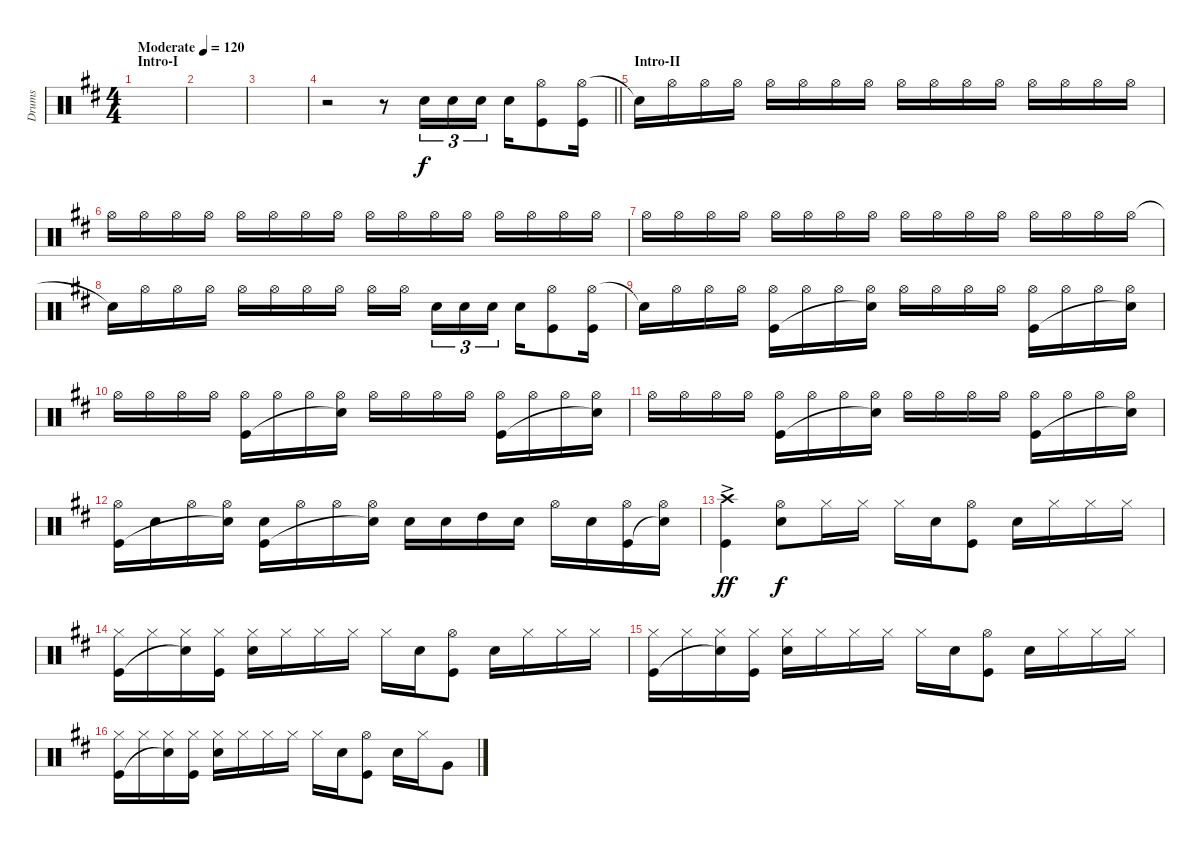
\track ("Drums" "Drums") {instrument percussion}
\staff {score}
\articulation defaults
\ts (4 4)
\section ("" "Intro-I")
\tempo (120 "Moderate")
\clef neutral
\ks d
|
|
|
\barLineRight lightlight
r.2 r.8 "Snare (hit) 2".16{tu (3 2)} "Snare (hit) 2".16{tu (3 2)} "Snare (hit) 2".16{tu (3 2)} "Snare (hit) 2".16 ("Hi-Hat (open)" "Kick (hit)").8 ("Hi-Hat (open)" "Kick (hit)").16 |
\section ("" "Intro-II")
"Snare (hit)"{t}.16 "Hi-Hat (open)".16 "Hi-Hat (open)".16 "Hi-Hat (open)".16 "Hi-Hat (open)".16 "Hi-Hat (open)".16 "Hi-Hat (open)".16 "Hi-Hat (open)".16 "Hi-Hat (open)".16 "Hi-Hat (open)".16 "Hi-Hat (open)".16 "Hi-Hat (open)".16 "Hi-Hat (open)".16 "Hi-Hat (open)".16 "Hi-Hat (open)".16 "Hi-Hat (open)".16 |
"Hi-Hat (open)".16 "Hi-Hat (open)".16 "Hi-Hat (open)".16 "Hi-Hat (open)".16 "Hi-Hat (open)".16 "Hi-Hat (open)".16 "Hi-Hat (open)".16 "Hi-Hat (open)".16 "Hi-Hat (open)".16 "Hi-Hat (open)".16 "Hi-Hat (open)".16 "Hi-Hat (open)".16 "Hi-Hat (open)".16 "Hi-Hat (open)".16 "Hi-Hat (open)".16 "Hi-Hat (open)".16 |
"Hi-Hat (open)".16 "Hi-Hat (open)".16 "Hi-Hat (open)".16 "Hi-Hat (open)".16 "Hi-Hat (open)".16 "Hi-Hat (open)".16 "Hi-Hat (open)".16 "Hi-Hat (open)".16 "Hi-Hat (open)".16 "Hi-Hat (open)".16 "Hi-Hat (open)".16 "Hi-Hat (open)".16 "Hi-Hat (open)".16 "Hi-Hat (open)".16 "Hi-Hat (open)".16 "Hi-Hat (open)".16 |
"Snare (hit)"{t}.16 "Hi-Hat (open)".16 "Hi-Hat (open)".16 "Hi-Hat (open)".16 "Hi-Hat (open)".16 "Hi-Hat (open)".16 "Hi-Hat (open)".16 "Hi-Hat (open)".16 "Hi-Hat (open)".16 "Hi-Hat (open)".16{beam splitsecondary} "Snare (hit) 2".16{tu (3 2)} "Snare (hit) 2".16{tu (3 2)} "Snare (hit) 2".16{tu (3 2)} "Snare (hit) 2".16 ("Hi-Hat (open)" "Kick (hit)").8 ("Hi-Hat (open)" "Kick (hit)").16 |
"Snare (hit)"{t}.16 "Hi-Hat (open)".16 "Hi-Hat (open)".16 "Hi-Hat (open)".16 ("Hi-Hat (open)" "Kick (hit)").16 "Hi-Hat (open)".16 "Hi-Hat (open)".16 ("Hi-Hat (open)" "Snare (hit)"{t}).16 "Hi-Hat (open)".16 "Hi-Hat (open)".16 "Hi-Hat (open)".16 "Hi-Hat (open)".16 ("Hi-Hat (open)" "Kick (hit)").16 "Hi-Hat (open)".16 "Hi-Hat (open)".16 ("Hi-Hat (open)" "Snare (hit)"{t}).16 |
"Hi-Hat (open)".16 "Hi-Hat (open)".16 "Hi-Hat (open)".16 "Hi-Hat (open)".16 ("Hi-Hat (open)" "Kick (hit)").16 "Hi-Hat (open)".16 "Hi-Hat (open)".16 ("Hi-Hat (open)" "Snare (hit)"{t}).16 "Hi-Hat (open)".16 "Hi-Hat (open)".16 "Hi-Hat (open)".16 "Hi-Hat (open)".16 ("Hi-Hat (open)" "Kick (hit)").16 "Hi-Hat (open)".16 "Hi-Hat (open)".16 ("Hi-Hat (open)" "Snare (hit)"{t}).16 |
"Hi-Hat (open)".16 "Hi-Hat (open)".16 "Hi-Hat (open)".16 "Hi-Hat (open)".16 ("Hi-Hat (open)" "Kick (hit)").16 "Hi-Hat (open)".16 "Hi-Hat (open)".16 ("Hi-Hat (open)" "Snare (hit)"{t}).16 "Hi-Hat (open)".16 "Hi-Hat (open)".16 "Hi-Hat (open)".16 "Hi-Hat (open)".16 ("Hi-Hat (open)" "Kick (hit)").16 "Hi-Hat (open)".16 "Hi-Hat (open)".16 ("Hi-Hat (open)" "Snare (hit)"{t}).16 |
("Hi-Hat (open)" "Kick (hit)").16 "Snare (hit) 2".16 "Hi-Hat (open)".16 ("Hi-Hat (open)" "Snare (hit)"{t}).16 ("Snare (hit) 2" "Kick (hit)").16 "Hi-Hat (open)".16 "Hi-Hat (open)".16 ("Hi-Hat (open)" "Snare (hit)"{t}).16 "Snare (hit) 2".16 "Snare (hit) 2".16 "High Tom (hit)".16 "Snare (hit) 2".16 "Hi-Hat (open)".16 "Snare (hit) 2".16 ("Hi-Hat (open)" "Kick (hit)").16 ("Hi-Hat (open)" "Snare (hit)"{t}).16 |
("Crash high (hit)"{ac} "Kick (hit)").4{dy ff} ("Hi-Hat (open)" "Snare (hit) 2").8{dy f} "Hi-Hat (closed)".16 "Hi-Hat (closed)".16 "Hi-Hat (closed)".16 "Snare (hit) 2".16 ("Hi-Hat (open)" "Kick (hit)").8 "Snare (hit) 2".16 "Hi-Hat (closed)".16 "Hi-Hat (closed)".16 "Hi-Hat (closed)".16 |
("Hi-Hat (closed)" "Kick (hit)").16 "Hi-Hat (closed)".16 ("Hi-Hat (closed)" "Snare (hit)"{t}).16 ("Hi-Hat (closed)" "Kick (hit)").16 ("Hi-Hat (closed)" "Snare (hit) 2").16 "Hi-Hat (closed)".16 "Hi-Hat (closed)".16 "Hi-Hat (closed)".16 "Hi-Hat (closed)".16 "Snare (hit) 2".16 ("Hi-Hat (open)" "Kick (hit)").8 "Snare (hit) 2".16 "Hi-Hat (closed)".16 "Hi-Hat (closed)".16 "Hi-Hat (closed)".16 |
("Hi-Hat (closed)" "Kick (hit)").16 "Hi-Hat (closed)".16 ("Hi-Hat (closed)" "Snare (hit)"{t}).16 ("Hi-Hat (closed)" "Kick (hit)").16 ("Hi-Hat (closed)" "Snare (hit) 2").16 "Hi-Hat (closed)".16 "Hi-Hat (closed)".16 "Hi-Hat (closed)".16 "Hi-Hat (closed)".16 "Snare (hit) 2".16 ("Hi-Hat (open)" "Kick (hit)").8 "Snare (hit) 2".16 "Hi-Hat (closed)".16 "Hi-Hat (closed)".16 "Hi-Hat (closed)".16 |
("Hi-Hat (closed)" "Kick (hit)").16 "Hi-Hat (closed)".16 ("Hi-Hat (closed)" "Snare (hit)"{t}).16 ("Hi-Hat (closed)" "Kick (hit)").16 ("Hi-Hat (closed)" "Snare (hit) 2").16 "Hi-Hat (closed)".16 "Hi-Hat (closed)".16 "Hi-Hat (closed)".16 "Hi-Hat (closed)".16 "Snare (hit) 2".16 ("Hi-Hat (open)" "Kick (hit)").8 "Snare (hit) 2".16 "Hi-Hat (closed)".16 "Very Low Tom (hit)".8
